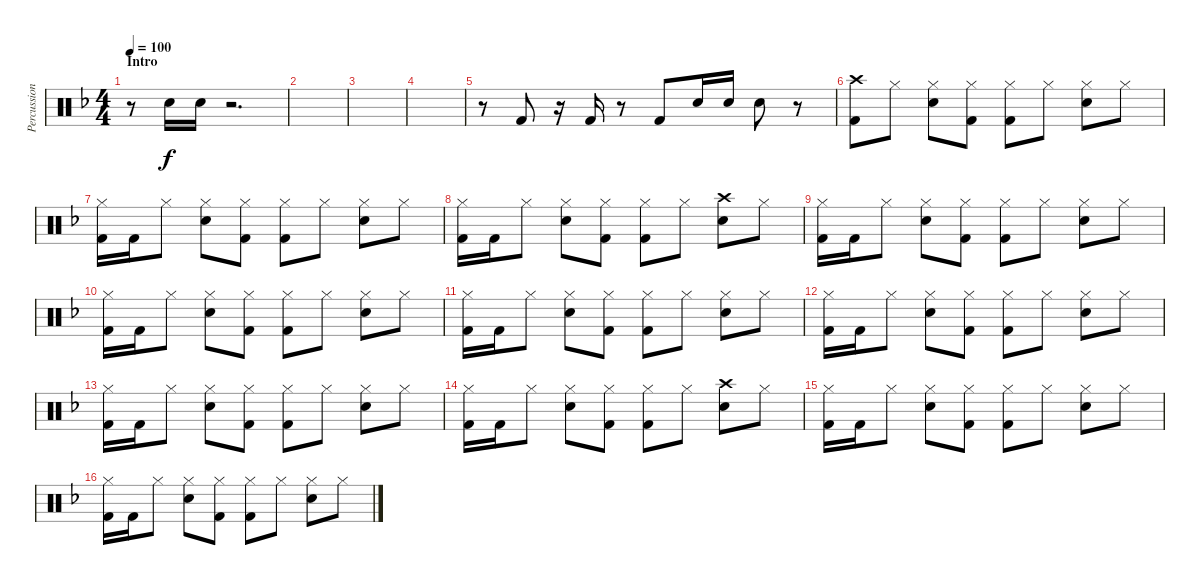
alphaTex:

\track ("Percussion" "Percussion") {instrument percussion}
\staff {score}
\articulation defaults
\ts (4 4)
\section ("" "Intro")
\tempo 100
\clef neutral
\ks f
r.8{dy f} "Snare (hit) 2".16 "Snare (hit) 2".16 r.2{d} |
|
|
|
r.8 "Kick (hit) 2".8 r.16 "Kick (hit) 2".16 r.8 "Kick (hit) 2".8 "Snare (hit) 2".16 "Snare (hit) 2".16 "Snare (hit) 2".8 r.8 |
("Crash high (hit)" "Kick (hit) 2").8 "Hi-Hat (closed)".8 ("Hi-Hat (closed)" "Snare (hit) 2").8 ("Hi-Hat (closed)" "Kick (hit) 2").8 ("Hi-Hat (closed)" "Kick (hit) 2").8 "Hi-Hat (closed)".8 ("Hi-Hat (closed)" "Snare (hit) 2").8 "Hi-Hat (closed)".8 |
("Hi-Hat (closed)" "Kick (hit) 2").16 "Kick (hit) 2".16 "Hi-Hat (closed)".8 ("Hi-Hat (closed)" "Snare (hit) 2").8 ("Hi-Hat (closed)" "Kick (hit) 2").8 ("Hi-Hat (closed)" "Kick (hit) 2").8 "Hi-Hat (closed)".8 ("Hi-Hat (closed)" "Snare (hit) 2").8 "Hi-Hat (closed)".8 |
("Hi-Hat (closed)" "Kick (hit) 2").16 "Kick (hit) 2".16 "Hi-Hat (closed)".8 ("Hi-Hat (closed)" "Snare (hit) 2").8 ("Hi-Hat (closed)" "Kick (hit) 2").8 ("Hi-Hat (closed)" "Kick (hit) 2").8 "Hi-Hat (closed)".8 ("Crash high (hit)" "Snare (hit) 2").8 "Hi-Hat (closed)".8 |
("Hi-Hat (closed)" "Kick (hit) 2").16 "Kick (hit) 2".16 "Hi-Hat (closed)".8 ("Hi-Hat (closed)" "Snare (hit) 2").8 ("Hi-Hat (closed)" "Kick (hit) 2").8 ("Hi-Hat (closed)" "Kick (hit) 2").8 "Hi-Hat (closed)".8 ("Hi-Hat (closed)" "Snare (hit) 2").8 "Hi-Hat (closed)".8 |
("Hi-Hat (closed)" "Kick (hit) 2").16 "Kick (hit) 2".16 "Hi-Hat (closed)".8 ("Hi-Hat (closed)" "Snare (hit) 2").8 ("Hi-Hat (closed)" "Kick (hit) 2").8 ("Hi-Hat (closed)" "Kick (hit) 2").8 "Hi-Hat (closed)".8 ("Hi-Hat (closed)" "Snare (hit) 2").8 "Hi-Hat (closed)".8 |
("Hi-Hat (closed)" "Kick (hit) 2").16 "Kick (hit) 2".16 "Hi-Hat (closed)".8 ("Hi-Hat (closed)" "Snare (hit) 2").8 ("Hi-Hat (closed)" "Kick (hit) 2").8 ("Hi-Hat (closed)" "Kick (hit) 2").8 "Hi-Hat (closed)".8 ("Hi-Hat (closed)" "Snare (hit) 2").8 "Hi-Hat (closed)".8 |
("Hi-Hat (closed)" "Kick (hit) 2").16 "Kick (hit) 2".16 "Hi-Hat (closed)".8 ("Hi-Hat (closed)" "Snare (hit) 2").8 ("Hi-Hat (closed)" "Kick (hit) 2").8 ("Hi-Hat (closed)" "Kick (hit) 2").8 "Hi-Hat (closed)".8 ("Hi-Hat (closed)" "Snare (hit) 2").8 "Hi-Hat (closed)".8 |
("Hi-Hat (closed)" "Kick (hit) 2").16 "Kick (hit) 2".16 "Hi-Hat (closed)".8 ("Hi-Hat (closed)" "Snare (hit) 2").8 ("Hi-Hat (closed)" "Kick (hit) 2").8 ("Hi-Hat (closed)" "Kick (hit) 2").8 "Hi-Hat (closed)".8 ("Hi-Hat (closed)" "Snare (hit) 2").8 "Hi-Hat (closed)".8 |
("Hi-Hat (closed)" "Kick (hit) 2").16 "Kick (hit) 2".16 "Hi-Hat (closed)".8 ("Hi-Hat (closed)" "Snare (hit) 2").8 ("Hi-Hat (closed)" "Kick (hit) 2").8 ("Hi-Hat (closed)" "Kick (hit) 2").8 "Hi-Hat (closed)".8 ("Crash high (hit)" "Snare (hit) 2").8 "Hi-Hat (closed)".8 |
("Hi-Hat (closed)" "Kick (hit) 2").16 "Kick (hit) 2".16 "Hi-Hat (closed)".8 ("Hi-Hat (closed)" "Snare (hit) 2").8 ("Hi-Hat (closed)" "Kick (hit) 2").8 ("Hi-Hat (closed)" "Kick (hit) 2").8 "Hi-Hat (closed)".8 ("Hi-Hat (closed)" "Snare (hit) 2").8 "Hi-Hat (closed)".8 |
("Hi-Hat (closed)" "Kick (hit) 2").16 "Kick (hit) 2".16 "Hi-Hat (closed)".8 ("Hi-Hat (closed)" "Snare (hit) 2").8 ("Hi-Hat (closed)" "Kick (hit) 2").8 ("Hi-Hat (closed)" "Kick (hit) 2").8 "Hi-Hat (closed)".8 ("Hi-Hat (closed)" "Snare (hit) 2").8 "Hi-Hat (closed)".8
